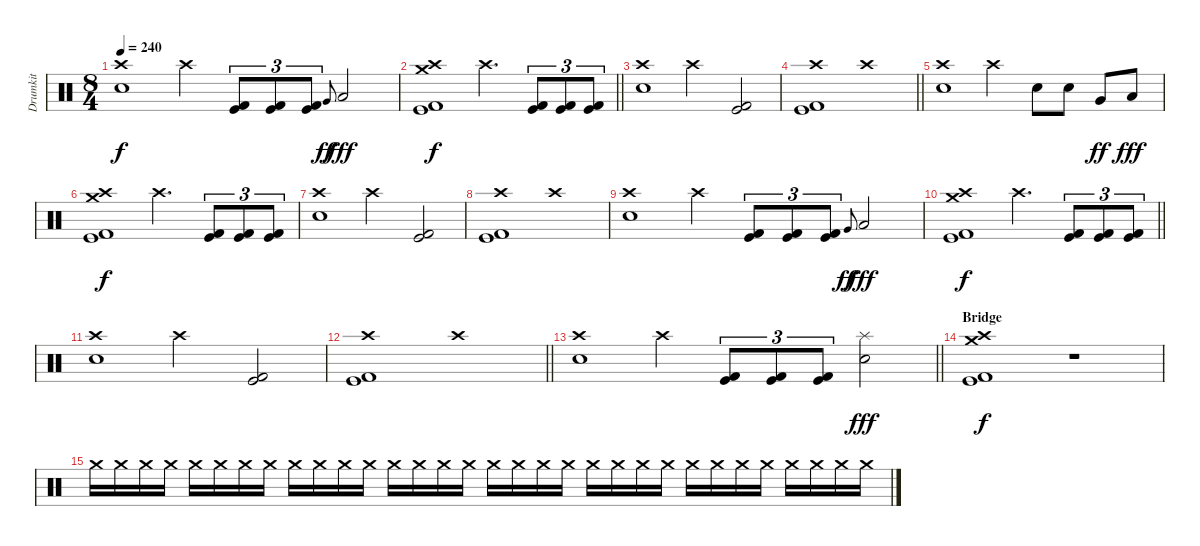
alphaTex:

\track ("Drumkit" "Drumkit") {instrument percussion}
\staff {score}
\articulation defaults
\ts (8 4)
\tempo 240
\clef neutral
\ks c
("Crash high (hit)" "Electric Snare (hit)").1{dy f} "Crash high (hit)".4 ("Kick (hit)" "Kick (hit) 2").8{tu (3 2)} ("Kick (hit)" "Kick (hit) 2").8{tu (3 2)} ("Kick (hit)" "Kick (hit) 2").8{tu (3 2)} "Very Low Tom (hit)".8{gr onbeat dy ff} "Low Floor Tom (hit)".2{dy fff} |
\barLineRight lightlight
("Crash high (hit)" "Crash medium (hit)" "Kick (hit)" "Kick (hit) 2").1{dy f} "Crash high (hit)".2{d} ("Kick (hit)" "Kick (hit) 2").8{tu (3 2)} ("Kick (hit)" "Kick (hit) 2").8{tu (3 2)} ("Kick (hit)" "Kick (hit) 2").8{tu (3 2)} |
("Crash high (hit)" "Electric Snare (hit)").1 "Crash high (hit)".2 ("Kick (hit)" "Kick (hit) 2").2 |
\barLineRight lightlight
("Crash high (hit)" "Kick (hit)" "Kick (hit) 2").1 "Crash high (hit)".1 |
("Crash high (hit)" "Electric Snare (hit)").1 "Crash high (hit)".2 "Electric Snare (hit)".8 "Electric Snare (hit)".8 "Very Low Tom (hit)".8{dy ff} "Low Floor Tom (hit)".8{dy fff} |
("Crash high (hit)" "Crash medium (hit)" "Kick (hit)" "Kick (hit) 2").1{dy f} "Crash high (hit)".2{d} ("Kick (hit)" "Kick (hit) 2").8{tu (3 2)} ("Kick (hit)" "Kick (hit) 2").8{tu (3 2)} ("Kick (hit)" "Kick (hit) 2").8{tu (3 2)} |
("Crash high (hit)" "Electric Snare (hit)").1 "Crash high (hit)".2 ("Kick (hit)" "Kick (hit) 2").2 |
("Crash high (hit)" "Kick (hit)" "Kick (hit) 2").1 "Crash high (hit)".1 |
("Crash high (hit)" "Electric Snare (hit)").1 "Crash high (hit)".4 ("Kick (hit)" "Kick (hit) 2").8{tu (3 2)} ("Kick (hit)" "Kick (hit) 2").8{tu (3 2)} ("Kick (hit)" "Kick (hit) 2").8{tu (3 2)} "Very Low Tom (hit)".8{gr onbeat dy ff} "Low Floor Tom (hit)".2{dy fff} |
\barLineRight lightlight
("Crash high (hit)" "Crash medium (hit)" "Kick (hit)" "Kick (hit) 2").1{dy f} "Crash high (hit)".2{d} ("Kick (hit)" "Kick (hit) 2").8{tu (3 2)} ("Kick (hit)" "Kick (hit) 2").8{tu (3 2)} ("Kick (hit)" "Kick (hit) 2").8{tu (3 2)} |
("Crash high (hit)" "Electric Snare (hit)").1 "Crash high (hit)".2 ("Kick (hit)" "Kick (hit) 2").2 |
\barLineRight lightlight
("Crash high (hit)" "Kick (hit)" "Kick (hit) 2").1 "Crash high (hit)".1 |
\barLineRight lightlight
("Crash high (hit)" "Electric Snare (hit)").1 "Crash high (hit)".4 ("Kick (hit)" "Kick (hit) 2").8{tu (3 2)} ("Kick (hit)" "Kick (hit) 2").8{tu (3 2)} ("Kick (hit)" "Kick (hit) 2").8{tu (3 2)} ("Splash (hit)" "Electric Snare (hit)").2{dy fff} |
\section ("" "Bridge")
("Crash high (hit)" "Crash medium (hit)" "Kick (hit)" "Kick (hit) 2").1{dy f} r.1{volume 0} |
"Crash medium (hit)".16{volume 14} "Crash medium (hit)".16 "Crash medium (hit)".16 "Crash medium (hit)".16 "Crash medium (hit)".16 "Crash medium (hit)".16 "Crash medium (hit)".16 "Crash medium (hit)".16 "Crash medium (hit)".16 "Crash medium (hit)".16 "Crash medium (hit)".16 "Crash medium (hit)".16 "Crash medium (hit)".16 "Crash medium (hit)".16 "Crash medium (hit)".16 "Crash medium (hit)".16 "Crash medium (hit)".16 "Crash medium (hit)".16 "Crash medium (hit)".16 "Crash medium (hit)".16 "Crash medium (hit)".16 "Crash medium (hit)".16 "Crash medium (hit)".16 "Crash medium (hit)".16 "Crash medium (hit)".16 "Crash medium (hit)".16 "Crash medium (hit)".16 "Crash medium (hit)".16 "Crash medium (hit)".16 "Crash medium (hit)".16 "Crash medium (hit)".16 "Crash medium (hit)".16
